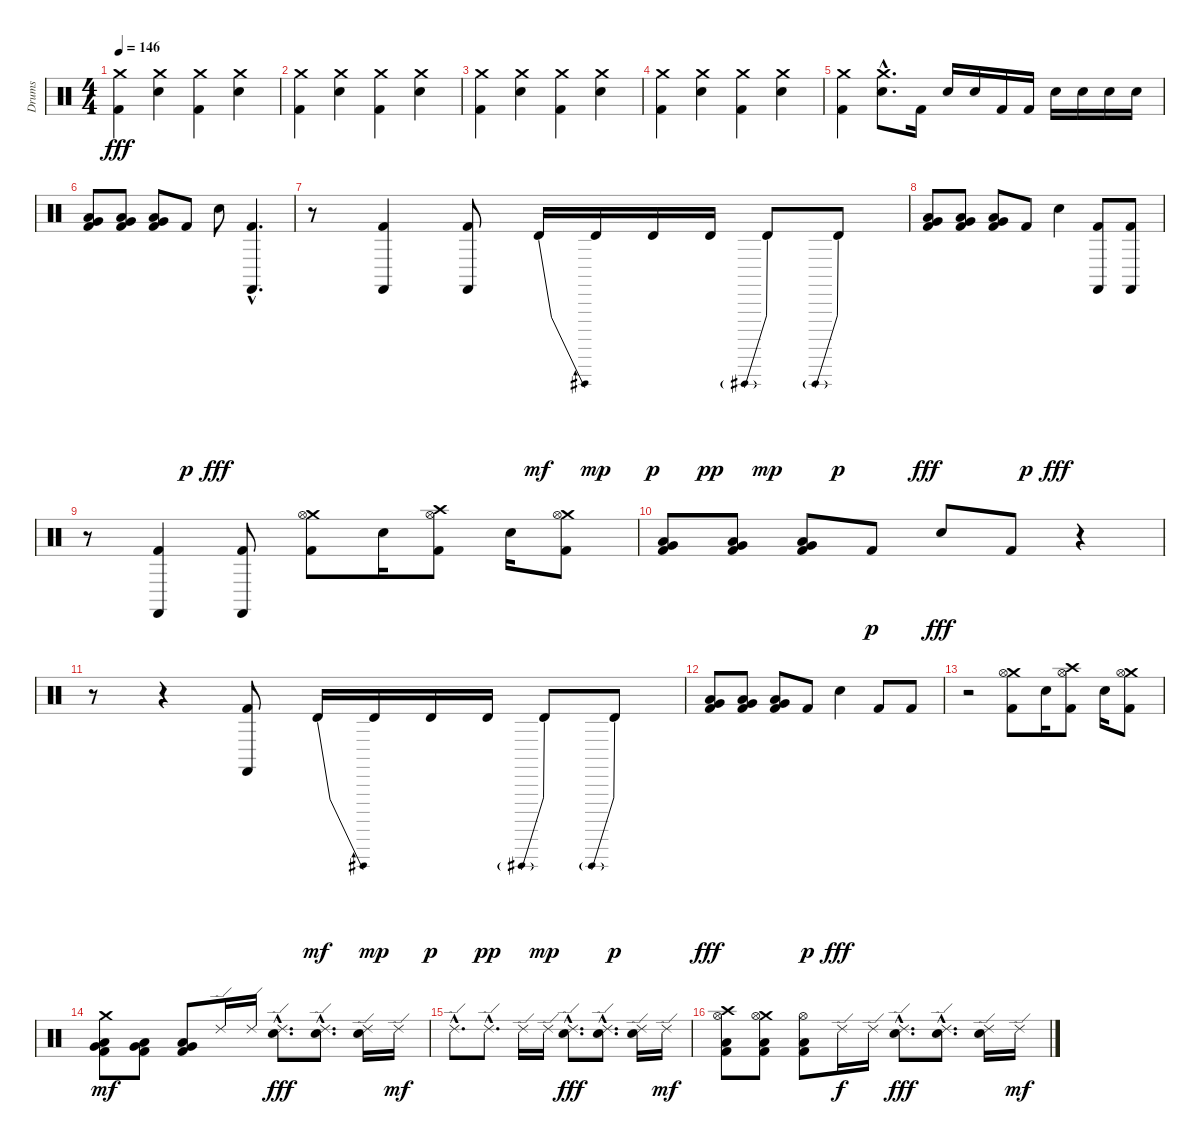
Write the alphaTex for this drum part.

\track ("Drums" "Drums") {instrument percussion}
\staff {score}
\articulation defaults
\ts (4 4)
\tempo 146
\clef neutral
\ks c
("Crash medium (hit)" "Kick (hit) 2").4{dy fff} ("Crash medium (hit)" "Snare (hit) 2").4 ("Crash medium (hit)" "Kick (hit) 2").4 ("Crash medium (hit)" "Snare (hit) 2").4 |
("Crash medium (hit)" "Kick (hit) 2").4 ("Crash medium (hit)" "Snare (hit) 2").4 ("Crash medium (hit)" "Kick (hit) 2").4 ("Crash medium (hit)" "Snare (hit) 2").4 |
("Crash medium (hit)" "Kick (hit) 2").4 ("Crash medium (hit)" "Snare (hit) 2").4 ("Crash medium (hit)" "Kick (hit) 2").4 ("Crash medium (hit)" "Snare (hit) 2").4 |
("Crash medium (hit)" "Kick (hit) 2").4 ("Crash medium (hit)" "Snare (hit) 2").4 ("Crash medium (hit)" "Kick (hit) 2").4 ("Crash medium (hit)" "Snare (hit) 2").4 |
("Crash medium (hit)" "Kick (hit) 2").4 ("Crash medium (hit)"{hac} "Snare (hit) 2"{hac}).8{d} "Kick (hit) 2".16 "Snare (hit) 2".16 "Snare (hit) 2".16 "Kick (hit) 2".16 "Kick (hit) 2".16 "Snare (hit) 2".16 "Snare (hit) 2".16 "Snare (hit) 2".16 "Snare (hit) 2".16 |
("Very Low Tom (hit)" "Low Floor Tom (hit)" "Kick (hit) 2").8 ("Very Low Tom (hit)" "Low Floor Tom (hit)" "Kick (hit) 2").8 ("Very Low Tom (hit)" "Low Floor Tom (hit)" "Kick (hit) 2").8 "Kick (hit) 2".8{dy p} "Snare (hit) 2".8{dy fff} ("Castanets (hit)"{hac} "Kick (hit) 2"{hac}).4{d} |
r.8 ("Castanets (hit)" "Kick (hit) 2").4 ("Castanets (hit)" "Kick (hit) 2").8 "Timbale high (hit)"{be (bend 0 0 60 1)}.16{dy mf} "Timbale high (hit)".16{dy mp} "Timbale high (hit)".16{dy p} "Timbale high (hit)".16{dy pp} "Timbale high (hit)"{be (prebend 0 1 60 1)}.8{dy mp} "Timbale high (hit)"{be (prebend 0 2 60 2)}.8{dy p} |
("Very Low Tom (hit)" "Low Floor Tom (hit)" "Kick (hit) 2").8{dy fff} ("Very Low Tom (hit)" "Low Floor Tom (hit)" "Kick (hit) 2").8 ("Very Low Tom (hit)" "Low Floor Tom (hit)" "Kick (hit) 2").8 "Kick (hit) 2".8{dy p} "Snare (hit) 2".4{dy fff} ("Castanets (hit)" "Kick (hit) 2").8 ("Castanets (hit)" "Kick (hit) 2").8 |
r.8 ("Castanets (hit)" "Kick (hit) 2").4 ("Castanets (hit)" "Kick (hit) 2").8 ("Crash medium (hit)" "Hi-Hat (open)" "Kick (hit) 2").8 "Snare (hit) 2".16 ("Crash high (hit)" "Hi-Hat (open)" "Kick (hit) 2").8 "Snare (hit) 2".16 ("Crash medium (hit)" "Hi-Hat (open)" "Kick (hit) 2").8 |
("Very Low Tom (hit)" "Low Floor Tom (hit)" "Kick (hit) 2").8 ("Very Low Tom (hit)" "Low Floor Tom (hit)" "Kick (hit) 2").8 ("Very Low Tom (hit)" "Low Floor Tom (hit)" "Kick (hit) 2").8 "Kick (hit) 2".8{dy p} "Snare (hit) 2".8{dy fff} "Kick (hit) 2".8 r.4 |
r.8 r.4 ("Castanets (hit)" "Kick (hit) 2").8 "Timbale high (hit)"{be (bend 0 0 60 1)}.16{dy mf} "Timbale high (hit)".16{dy mp} "Timbale high (hit)".16{dy p} "Timbale high (hit)".16{dy pp} "Timbale high (hit)"{be (prebend 0 1 60 1)}.8{dy mp} "Timbale high (hit)"{be (prebend 0 2 60 2)}.8{dy p} |
("Very Low Tom (hit)" "Low Floor Tom (hit)" "Kick (hit) 2").8{dy fff} ("Very Low Tom (hit)" "Low Floor Tom (hit)" "Kick (hit) 2").8 ("Very Low Tom (hit)" "Low Floor Tom (hit)" "Kick (hit) 2").8 "Kick (hit) 2".8{dy p} "Snare (hit) 2".4{dy fff} "Kick (hit) 2".8 "Kick (hit) 2".8 |
r.2 ("Crash medium (hit)" "Hi-Hat (open)" "Kick (hit) 2").8 "Snare (hit) 2".16 ("Crash high (hit)" "Hi-Hat (open)" "Kick (hit) 2").8 "Snare (hit) 2".16 ("Crash medium (hit)" "Hi-Hat (open)" "Kick (hit) 2").8 |
("Crash medium (hit)" "Very Low Tom (hit)" "Low Floor Tom (hit)" "Kick (hit) 2").8{dy mf} ("Very Low Tom (hit)" "Low Floor Tom (hit)" "Kick (hit) 2").8 ("Very Low Tom (hit)" "Low Floor Tom (hit)" "Kick (hit) 2").8 "Ride (edge) 2".16 "Ride (edge) 2".16 ("Ride (edge) 2"{hac} "Snare (hit) 2"{hac}).8{d dy fff} ("Ride (edge) 2"{hac} "Snare (hit) 2"{hac}).8{d} ("Ride (edge) 2" "Snare (hit) 2").16 "Ride (edge) 2".16{dy mf} |
"Ride (edge) 2"{hac}.8{d} "Ride (edge) 2"{hac}.8{d} "Ride (edge) 2".16 "Ride (edge) 2".16 ("Ride (edge) 2"{hac} "Snare (hit) 2"{hac}).8{d dy fff} ("Ride (edge) 2"{hac} "Snare (hit) 2"{hac}).8{d} ("Ride (edge) 2" "Snare (hit) 2").16 "Ride (edge) 2".16{dy mf} |
("Crash high (hit)" "Hi-Hat (open)" "Low Floor Tom (hit)" "Kick (hit) 2").8 ("Crash medium (hit)" "Hi-Hat (open)" "Low Floor Tom (hit)" "Kick (hit) 2").8 ("Hi-Hat (open)" "Low Floor Tom (hit)" "Kick (hit) 2").8 "Ride (edge) 2".16{dy f} "Ride (edge) 2".16 ("Ride (edge) 2"{hac} "Snare (hit) 2"{hac}).8{d dy fff} ("Ride (edge) 2"{hac} "Snare (hit) 2"{hac}).8{d} ("Ride (edge) 2" "Snare (hit) 2").16 "Ride (edge) 2".16{dy mf}
